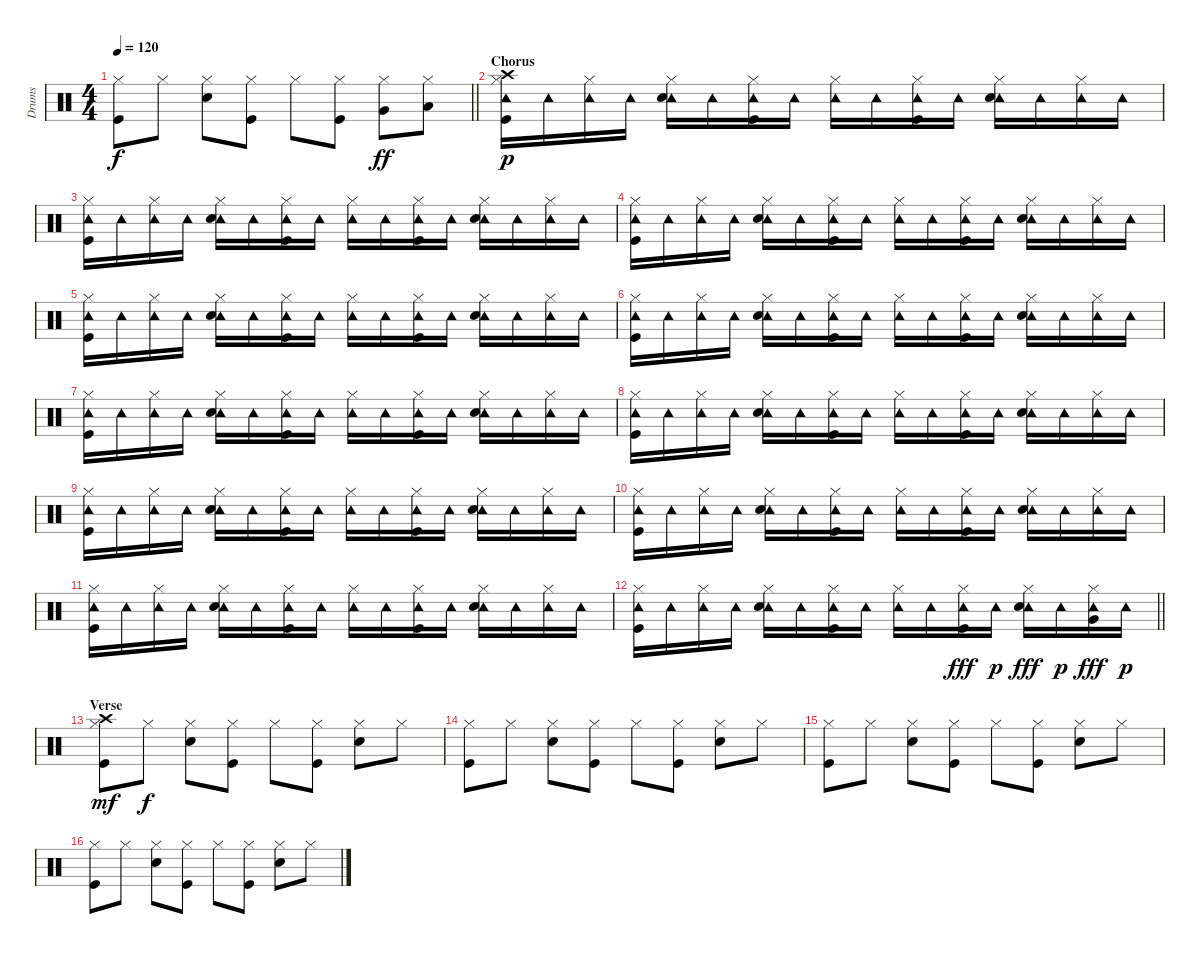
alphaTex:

\track ("Drums" "Drums") {instrument percussion}
\staff {score}
\articulation defaults
\ts (4 4)
\tempo 120
\clef neutral
\barLineRight lightlight
\ks c
("Hi-Hat (closed)" "Kick (hit)").8{dy f} "Hi-Hat (closed)".8 ("Hi-Hat (closed)" "Snare (hit) 2").8 ("Hi-Hat (closed)" "Kick (hit)").8 "Hi-Hat (closed)".8 ("Hi-Hat (closed)" "Kick (hit)").8 ("Hi-Hat (closed)" "Very Low Tom (hit)").8{dy ff} ("Hi-Hat (closed)" "Low Floor Tom (hit)").8 |
\section ("" "Chorus")
("Crash high (hit)" "Tambourine (hit)" "Hi-Hat (closed)" "Kick (hit)").16{dy p} "Tambourine (hit)".16 ("Tambourine (hit)" "Hi-Hat (closed)").16 "Tambourine (hit)".16 ("Tambourine (hit)" "Hi-Hat (closed)" "Snare (hit) 2").16 "Tambourine (hit)".16 ("Tambourine (hit)" "Hi-Hat (closed)" "Kick (hit)").16 "Tambourine (hit)".16 ("Tambourine (hit)" "Hi-Hat (closed)").16 "Tambourine (hit)".16 ("Tambourine (hit)" "Hi-Hat (closed)" "Kick (hit)").16 "Tambourine (hit)".16 ("Tambourine (hit)" "Hi-Hat (closed)" "Snare (hit) 2").16 "Tambourine (hit)".16 ("Tambourine (hit)" "Hi-Hat (closed)").16 "Tambourine (hit)".16 |
("Tambourine (hit)" "Hi-Hat (closed)" "Kick (hit)").16 "Tambourine (hit)".16 ("Tambourine (hit)" "Hi-Hat (closed)").16 "Tambourine (hit)".16 ("Tambourine (hit)" "Hi-Hat (closed)" "Snare (hit) 2").16 "Tambourine (hit)".16 ("Tambourine (hit)" "Hi-Hat (closed)" "Kick (hit)").16 "Tambourine (hit)".16 ("Tambourine (hit)" "Hi-Hat (closed)").16 "Tambourine (hit)".16 ("Tambourine (hit)" "Hi-Hat (closed)" "Kick (hit)").16 "Tambourine (hit)".16 ("Tambourine (hit)" "Hi-Hat (closed)" "Snare (hit) 2").16 "Tambourine (hit)".16 ("Tambourine (hit)" "Hi-Hat (closed)").16 "Tambourine (hit)".16 |
("Tambourine (hit)" "Hi-Hat (closed)" "Kick (hit)").16 "Tambourine (hit)".16 ("Tambourine (hit)" "Hi-Hat (closed)").16 "Tambourine (hit)".16 ("Tambourine (hit)" "Hi-Hat (closed)" "Snare (hit) 2").16 "Tambourine (hit)".16 ("Tambourine (hit)" "Hi-Hat (closed)" "Kick (hit)").16 "Tambourine (hit)".16 ("Tambourine (hit)" "Hi-Hat (closed)").16 "Tambourine (hit)".16 ("Tambourine (hit)" "Hi-Hat (closed)" "Kick (hit)").16 "Tambourine (hit)".16 ("Tambourine (hit)" "Hi-Hat (closed)" "Snare (hit) 2").16 "Tambourine (hit)".16 ("Tambourine (hit)" "Hi-Hat (closed)").16 "Tambourine (hit)".16 |
("Tambourine (hit)" "Hi-Hat (closed)" "Kick (hit)").16 "Tambourine (hit)".16 ("Tambourine (hit)" "Hi-Hat (closed)").16 "Tambourine (hit)".16 ("Tambourine (hit)" "Hi-Hat (closed)" "Snare (hit) 2").16 "Tambourine (hit)".16 ("Tambourine (hit)" "Hi-Hat (closed)" "Kick (hit)").16 "Tambourine (hit)".16 ("Tambourine (hit)" "Hi-Hat (closed)").16 "Tambourine (hit)".16 ("Tambourine (hit)" "Hi-Hat (closed)" "Kick (hit)").16 "Tambourine (hit)".16 ("Tambourine (hit)" "Hi-Hat (closed)" "Snare (hit) 2").16 "Tambourine (hit)".16 ("Tambourine (hit)" "Hi-Hat (closed)").16 "Tambourine (hit)".16 |
("Tambourine (hit)" "Hi-Hat (closed)" "Kick (hit)").16 "Tambourine (hit)".16 ("Tambourine (hit)" "Hi-Hat (closed)").16 "Tambourine (hit)".16 ("Tambourine (hit)" "Hi-Hat (closed)" "Snare (hit) 2").16 "Tambourine (hit)".16 ("Tambourine (hit)" "Hi-Hat (closed)" "Kick (hit)").16 "Tambourine (hit)".16 ("Tambourine (hit)" "Hi-Hat (closed)").16 "Tambourine (hit)".16 ("Tambourine (hit)" "Hi-Hat (closed)" "Kick (hit)").16 "Tambourine (hit)".16 ("Tambourine (hit)" "Hi-Hat (closed)" "Snare (hit) 2").16 "Tambourine (hit)".16 ("Tambourine (hit)" "Hi-Hat (closed)").16 "Tambourine (hit)".16 |
("Tambourine (hit)" "Hi-Hat (closed)" "Kick (hit)").16 "Tambourine (hit)".16 ("Tambourine (hit)" "Hi-Hat (closed)").16 "Tambourine (hit)".16 ("Tambourine (hit)" "Hi-Hat (closed)" "Snare (hit) 2").16 "Tambourine (hit)".16 ("Tambourine (hit)" "Hi-Hat (closed)" "Kick (hit)").16 "Tambourine (hit)".16 ("Tambourine (hit)" "Hi-Hat (closed)").16 "Tambourine (hit)".16 ("Tambourine (hit)" "Hi-Hat (closed)" "Kick (hit)").16 "Tambourine (hit)".16 ("Tambourine (hit)" "Hi-Hat (closed)" "Snare (hit) 2").16 "Tambourine (hit)".16 ("Tambourine (hit)" "Hi-Hat (closed)").16 "Tambourine (hit)".16 |
("Tambourine (hit)" "Hi-Hat (closed)" "Kick (hit)").16 "Tambourine (hit)".16 ("Tambourine (hit)" "Hi-Hat (closed)").16 "Tambourine (hit)".16 ("Tambourine (hit)" "Hi-Hat (closed)" "Snare (hit) 2").16 "Tambourine (hit)".16 ("Tambourine (hit)" "Hi-Hat (closed)" "Kick (hit)").16 "Tambourine (hit)".16 ("Tambourine (hit)" "Hi-Hat (closed)").16 "Tambourine (hit)".16 ("Tambourine (hit)" "Hi-Hat (closed)" "Kick (hit)").16 "Tambourine (hit)".16 ("Tambourine (hit)" "Hi-Hat (closed)" "Snare (hit) 2").16 "Tambourine (hit)".16 ("Tambourine (hit)" "Hi-Hat (closed)").16 "Tambourine (hit)".16 |
("Tambourine (hit)" "Hi-Hat (closed)" "Kick (hit)").16 "Tambourine (hit)".16 ("Tambourine (hit)" "Hi-Hat (closed)").16 "Tambourine (hit)".16 ("Tambourine (hit)" "Hi-Hat (closed)" "Snare (hit) 2").16 "Tambourine (hit)".16 ("Tambourine (hit)" "Hi-Hat (closed)" "Kick (hit)").16 "Tambourine (hit)".16 ("Tambourine (hit)" "Hi-Hat (closed)").16 "Tambourine (hit)".16 ("Tambourine (hit)" "Hi-Hat (closed)" "Kick (hit)").16 "Tambourine (hit)".16 ("Tambourine (hit)" "Hi-Hat (closed)" "Snare (hit) 2").16 "Tambourine (hit)".16 ("Tambourine (hit)" "Hi-Hat (closed)").16 "Tambourine (hit)".16 |
("Tambourine (hit)" "Hi-Hat (closed)" "Kick (hit)").16 "Tambourine (hit)".16 ("Tambourine (hit)" "Hi-Hat (closed)").16 "Tambourine (hit)".16 ("Tambourine (hit)" "Hi-Hat (closed)" "Snare (hit) 2").16 "Tambourine (hit)".16 ("Tambourine (hit)" "Hi-Hat (closed)" "Kick (hit)").16 "Tambourine (hit)".16 ("Tambourine (hit)" "Hi-Hat (closed)").16 "Tambourine (hit)".16 ("Tambourine (hit)" "Hi-Hat (closed)" "Kick (hit)").16 "Tambourine (hit)".16 ("Tambourine (hit)" "Hi-Hat (closed)" "Snare (hit) 2").16 "Tambourine (hit)".16 ("Tambourine (hit)" "Hi-Hat (closed)").16 "Tambourine (hit)".16 |
("Tambourine (hit)" "Hi-Hat (closed)" "Kick (hit)").16 "Tambourine (hit)".16 ("Tambourine (hit)" "Hi-Hat (closed)").16 "Tambourine (hit)".16 ("Tambourine (hit)" "Hi-Hat (closed)" "Snare (hit) 2").16 "Tambourine (hit)".16 ("Tambourine (hit)" "Hi-Hat (closed)" "Kick (hit)").16 "Tambourine (hit)".16 ("Tambourine (hit)" "Hi-Hat (closed)").16 "Tambourine (hit)".16 ("Tambourine (hit)" "Hi-Hat (closed)" "Kick (hit)").16 "Tambourine (hit)".16 ("Tambourine (hit)" "Hi-Hat (closed)" "Snare (hit) 2").16 "Tambourine (hit)".16 ("Tambourine (hit)" "Hi-Hat (closed)").16 "Tambourine (hit)".16 |
\barLineRight lightlight
("Tambourine (hit)" "Hi-Hat (closed)" "Kick (hit)").16 "Tambourine (hit)".16 ("Tambourine (hit)" "Hi-Hat (closed)").16 "Tambourine (hit)".16 ("Tambourine (hit)" "Hi-Hat (closed)" "Snare (hit) 2").16 "Tambourine (hit)".16 ("Tambourine (hit)" "Hi-Hat (closed)" "Kick (hit)").16 "Tambourine (hit)".16 ("Tambourine (hit)" "Hi-Hat (closed)").16 "Tambourine (hit)".16 ("Tambourine (hit)" "Hi-Hat (closed)" "Kick (hit)").16{dy fff} "Tambourine (hit)".16{dy p} ("Tambourine (hit)" "Hi-Hat (closed)" "Snare (hit) 2").16{dy fff} "Tambourine (hit)".16{dy p} ("Tambourine (hit)" "Hi-Hat (closed)" "Very Low Tom (hit)").16{dy fff} "Tambourine (hit)".16{dy p} |
\section ("" "Verse")
("Crash high (hit)" "Hi-Hat (closed)" "Kick (hit)").8{dy mf} "Hi-Hat (closed)".8{dy f} ("Hi-Hat (closed)" "Snare (hit) 2").8 ("Hi-Hat (closed)" "Kick (hit)").8 "Hi-Hat (closed)".8 ("Hi-Hat (closed)" "Kick (hit)").8 ("Hi-Hat (closed)" "Snare (hit) 2").8 "Hi-Hat (closed)".8 |
("Hi-Hat (closed)" "Kick (hit)").8 "Hi-Hat (closed)".8 ("Hi-Hat (closed)" "Snare (hit) 2").8 ("Hi-Hat (closed)" "Kick (hit)").8 "Hi-Hat (closed)".8 ("Hi-Hat (closed)" "Kick (hit)").8 ("Hi-Hat (closed)" "Snare (hit) 2").8 "Hi-Hat (closed)".8 |
("Hi-Hat (closed)" "Kick (hit)").8 "Hi-Hat (closed)".8 ("Hi-Hat (closed)" "Snare (hit) 2").8 ("Hi-Hat (closed)" "Kick (hit)").8 "Hi-Hat (closed)".8 ("Hi-Hat (closed)" "Kick (hit)").8 ("Hi-Hat (closed)" "Snare (hit) 2").8 "Hi-Hat (closed)".8 |
("Hi-Hat (closed)" "Kick (hit)").8 "Hi-Hat (closed)".8 ("Hi-Hat (closed)" "Snare (hit) 2").8 ("Hi-Hat (closed)" "Kick (hit)").8 "Hi-Hat (closed)".8 ("Hi-Hat (closed)" "Kick (hit)").8 ("Hi-Hat (closed)" "Snare (hit) 2").8 "Hi-Hat (closed)".8
